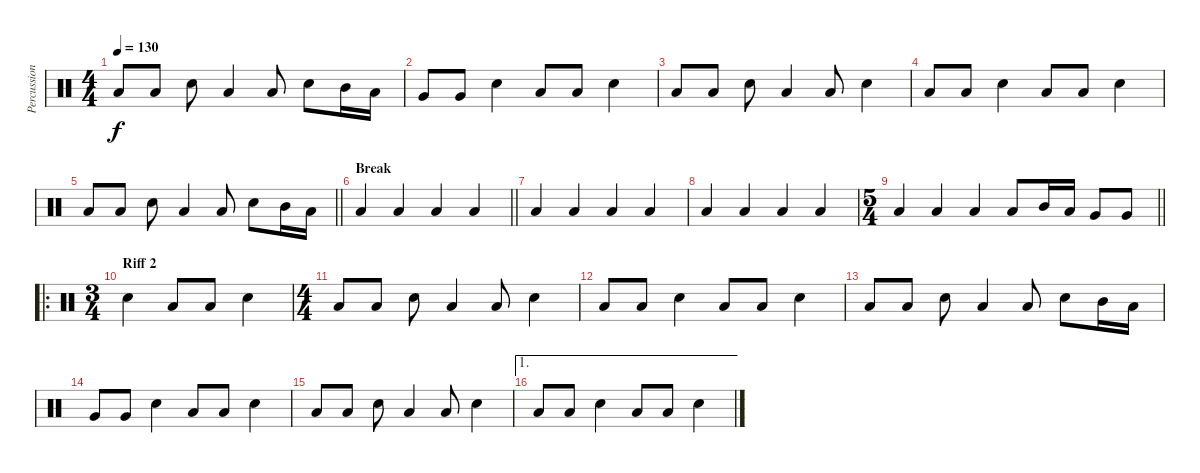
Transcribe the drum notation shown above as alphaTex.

\track ("Percussion 1" "Percussion") {instrument percussion}
\staff {score}
\articulation defaults
\ts (4 4)
\tempo 130
\clef neutral
\ks c "Low Floor Tom (hit)".8{dy f} "Low Floor Tom (hit)".8 "Electric Snare (hit)".8 "Low Floor Tom (hit)".4 "Low Floor Tom (hit)".8 "Electric Snare (hit)".8 "Mid Tom (hit)".16 "Low Tom (hit)".16
|
"Very Low Tom (hit)".8 "Very Low Tom (hit)".8 "Electric Snare (hit)".4 "Low Floor Tom (hit)".8 "Low Floor Tom (hit)".8 "Electric Snare (hit)".4 |
"Low Floor Tom (hit)".8 "Low Floor Tom (hit)".8 "Electric Snare (hit)".8 "Low Floor Tom (hit)".4 "Low Floor Tom (hit)".8 "Electric Snare (hit)".4 |
"Low Floor Tom (hit)".8 "Low Floor Tom (hit)".8 "Electric Snare (hit)".4 "Low Floor Tom (hit)".8 "Low Floor Tom (hit)".8 "Electric Snare (hit)".4 |
\barLineRight lightlight "Low Floor Tom (hit)".8 "Low Floor Tom (hit)".8 "Electric Snare (hit)".8 "Low Floor Tom (hit)".4 "Low Floor Tom (hit)".8 "Electric Snare (hit)".8 "Mid Tom (hit)".16 "Low Tom (hit)".16
|
\section ("" "Break")
\barLineRight lightlight "Low Floor Tom (hit)".4 "Low Floor Tom (hit)".4 "Low Floor Tom (hit)".4 "Low Floor Tom (hit)".4
|
"Low Floor Tom (hit)".4 "Low Floor Tom (hit)".4 "Low Floor Tom (hit)".4 "Low Floor Tom (hit)".4 |
"Low Floor Tom (hit)".4 "Low Floor Tom (hit)".4 "Low Floor Tom (hit)".4 "Low Floor Tom (hit)".4 |
\ts (5 4)
\barLineRight lightlight "Low Floor Tom (hit)".4 "Low Floor Tom (hit)".4 "Low Floor Tom (hit)".4 "Low Floor Tom (hit)".8 "Mid Tom (hit)".16 "Low Tom (hit)".16 "Very Low Tom (hit)".8 "Very Low Tom (hit)".8
|
\ro
\ts (3 4)
\section ("" "Riff 2")
"Electric Snare (hit)".4 "Low Floor Tom (hit)".8 "Low Floor Tom (hit)".8 "Electric Snare (hit)".4 |
\ts (4 4)
"Low Floor Tom (hit)".8 "Low Floor Tom (hit)".8 "Electric Snare (hit)".8 "Low Floor Tom (hit)".4 "Low Floor Tom (hit)".8 "Electric Snare (hit)".4 |
"Low Floor Tom (hit)".8 "Low Floor Tom (hit)".8 "Electric Snare (hit)".4 "Low Floor Tom (hit)".8 "Low Floor Tom (hit)".8 "Electric Snare (hit)".4 |
"Low Floor Tom (hit)".8 "Low Floor Tom (hit)".8 "Electric Snare (hit)".8 "Low Floor Tom (hit)".4 "Low Floor Tom (hit)".8 "Electric Snare (hit)".8 "Mid Tom (hit)".16 "Low Tom (hit)".16 |
"Very Low Tom (hit)".8 "Very Low Tom (hit)".8 "Electric Snare (hit)".4 "Low Floor Tom (hit)".8 "Low Floor Tom (hit)".8 "Electric Snare (hit)".4 |
"Low Floor Tom (hit)".8 "Low Floor Tom (hit)".8 "Electric Snare (hit)".8 "Low Floor Tom (hit)".4 "Low Floor Tom (hit)".8 "Electric Snare (hit)".4 |
\ae 1 "Low Floor Tom (hit)".8 "Low Floor Tom (hit)".8 "Electric Snare (hit)".4 "Low Floor Tom (hit)".8 "Low Floor Tom (hit)".8 "Electric Snare (hit)".4
